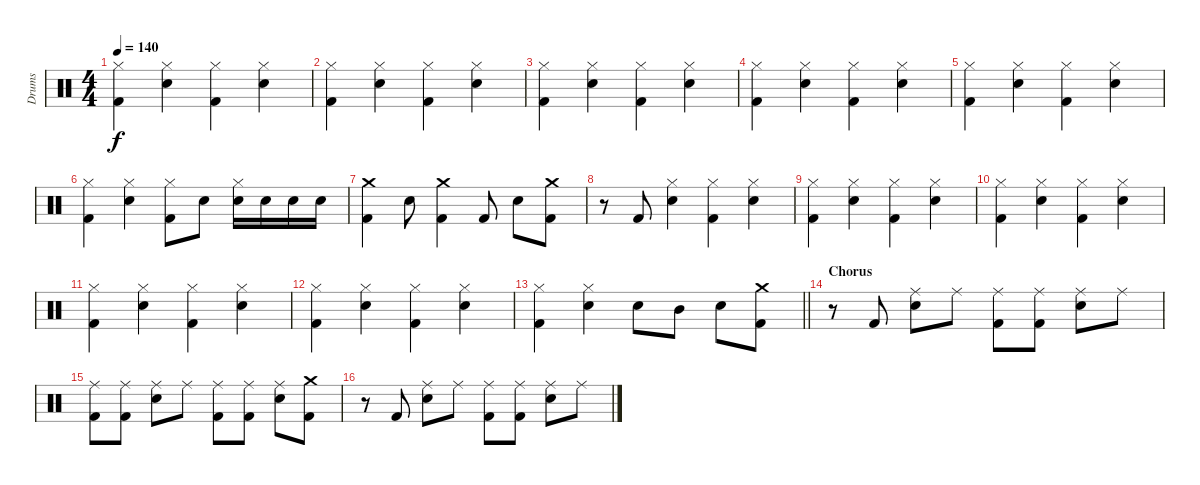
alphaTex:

\track ("Drums" "Drums") {instrument percussion}
\staff {score}
\articulation defaults
\ts (4 4)
\tempo 140
\clef neutral
\ks c
("Hi-Hat (closed)" "Kick (hit) 2").4{dy f} ("Hi-Hat (closed)" "Snare (hit) 2").4 ("Hi-Hat (closed)" "Kick (hit) 2").4 ("Hi-Hat (closed)" "Snare (hit) 2").4 |
("Hi-Hat (closed)" "Kick (hit) 2").4 ("Hi-Hat (closed)" "Snare (hit) 2").4 ("Hi-Hat (closed)" "Kick (hit) 2").4 ("Hi-Hat (closed)" "Snare (hit) 2").4 |
("Hi-Hat (closed)" "Kick (hit) 2").4 ("Hi-Hat (closed)" "Snare (hit) 2").4 ("Hi-Hat (closed)" "Kick (hit) 2").4 ("Hi-Hat (closed)" "Snare (hit) 2").4 |
("Hi-Hat (closed)" "Kick (hit) 2").4 ("Hi-Hat (closed)" "Snare (hit) 2").4 ("Hi-Hat (closed)" "Kick (hit) 2").4 ("Hi-Hat (closed)" "Snare (hit) 2").4 |
("Hi-Hat (closed)" "Kick (hit) 2").4 ("Hi-Hat (closed)" "Snare (hit) 2").4 ("Hi-Hat (closed)" "Kick (hit) 2").4 ("Hi-Hat (closed)" "Snare (hit) 2").4 |
("Hi-Hat (closed)" "Kick (hit) 2").4 ("Hi-Hat (closed)" "Snare (hit) 2").4 ("Hi-Hat (closed)" "Kick (hit) 2").8 "Snare (hit) 2".8 ("Hi-Hat (closed)" "Snare (hit) 2").16 "Snare (hit) 2".16 "Snare (hit) 2".16 "Snare (hit) 2".16 |
("Crash medium (hit)" "Kick (hit) 2").4 "Snare (hit) 2".8 ("Crash medium (hit)" "Kick (hit) 2").4 "Kick (hit) 2".8 "Snare (hit) 2".8 ("Crash medium (hit)" "Kick (hit) 2").8 |
r.8 "Kick (hit) 2".8 ("Hi-Hat (closed)" "Snare (hit) 2").4 ("Hi-Hat (closed)" "Kick (hit) 2").4 ("Hi-Hat (closed)" "Snare (hit) 2").4 |
("Hi-Hat (closed)" "Kick (hit) 2").4 ("Hi-Hat (closed)" "Snare (hit) 2").4 ("Hi-Hat (closed)" "Kick (hit) 2").4 ("Hi-Hat (closed)" "Snare (hit) 2").4 |
("Hi-Hat (closed)" "Kick (hit) 2").4 ("Hi-Hat (closed)" "Snare (hit) 2").4 ("Hi-Hat (closed)" "Kick (hit) 2").4 ("Hi-Hat (closed)" "Snare (hit) 2").4 |
("Hi-Hat (closed)" "Kick (hit) 2").4 ("Hi-Hat (closed)" "Snare (hit) 2").4 ("Hi-Hat (closed)" "Kick (hit) 2").4 ("Hi-Hat (closed)" "Snare (hit) 2").4 |
("Hi-Hat (closed)" "Kick (hit) 2").4 ("Hi-Hat (closed)" "Snare (hit) 2").4 ("Hi-Hat (closed)" "Kick (hit) 2").4 ("Hi-Hat (closed)" "Snare (hit) 2").4 |
\barLineRight lightlight
("Hi-Hat (closed)" "Kick (hit) 2").4 ("Hi-Hat (closed)" "Snare (hit) 2").4 "Snare (hit) 2".8 "Mid Tom (hit)".8 "Snare (hit) 2".8 ("Crash medium (hit)" "Kick (hit) 2").8 |
\section ("" "Chorus")
r.8 "Kick (hit) 2".8 ("Ride (middle)" "Snare (hit) 2").8 "Ride (middle)".8 ("Ride (middle)" "Kick (hit) 2").8 ("Ride (middle)" "Kick (hit) 2").8 ("Ride (middle)" "Snare (hit) 2").8 "Ride (middle)".8 |
("Ride (middle)" "Kick (hit) 2").8 ("Ride (middle)" "Kick (hit) 2").8 ("Ride (middle)" "Snare (hit) 2").8 "Ride (middle)".8 ("Ride (middle)" "Kick (hit) 2").8 ("Ride (middle)" "Kick (hit) 2").8 ("Ride (middle)" "Snare (hit) 2").8 ("Crash medium (hit)" "Kick (hit) 2").8 |
r.8 "Kick (hit) 2".8 ("Ride (middle)" "Snare (hit) 2").8 "Ride (middle)".8 ("Ride (middle)" "Kick (hit) 2").8 ("Ride (middle)" "Kick (hit) 2").8 ("Ride (middle)" "Snare (hit) 2").8 "Ride (middle)".8
